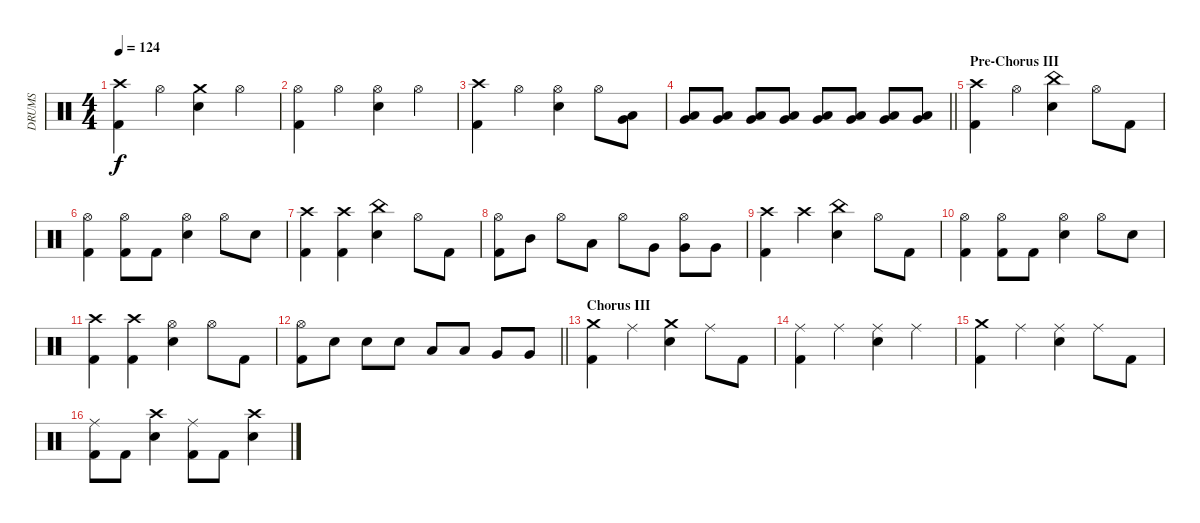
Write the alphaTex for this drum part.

\track ("DRUMS" "DRUMS") {instrument percussion}
\staff {score}
\articulation defaults
\ts (4 4)
\tempo 124
\clef neutral
\ks c
("Crash high (hit)" "Kick (hit) 2").4{dy f} "Hi-Hat (open)".4 ("Crash medium (hit)" "Snare (hit) 2").4 "Hi-Hat (open)".4 |
("Hi-Hat (open)" "Kick (hit) 2").4 "Hi-Hat (open)".4 ("Hi-Hat (open)" "Snare (hit) 2").4 "Hi-Hat (open)".4 |
("Crash high (hit)" "Kick (hit) 2").4 "Hi-Hat (open)".4 ("Hi-Hat (open)" "Snare (hit) 2").4 "Hi-Hat (open)".8 ("Very Low Tom (hit)" "Low Floor Tom (hit)").8 |
\barLineRight lightlight
("Very Low Tom (hit)" "Low Floor Tom (hit)").8 ("Very Low Tom (hit)" "Low Floor Tom (hit)").8 ("Very Low Tom (hit)" "Low Floor Tom (hit)").8 ("Very Low Tom (hit)" "Low Floor Tom (hit)").8 ("Very Low Tom (hit)" "Low Floor Tom (hit)").8 ("Very Low Tom (hit)" "Low Floor Tom (hit)").8 ("Very Low Tom (hit)" "Low Floor Tom (hit)").8 ("Very Low Tom (hit)" "Low Floor Tom (hit)").8 |
\section ("" "Pre-Chorus III")
("Crash high (hit)" "Kick (hit) 2").4 "Hi-Hat (open)".4 ("China (hit)" "Snare (hit) 2").4 "Hi-Hat (open)".8 "Kick (hit) 2".8 |
("Hi-Hat (open)" "Kick (hit) 2").4 ("Hi-Hat (open)" "Kick (hit) 2").8 "Kick (hit) 2".8 ("Hi-Hat (open)" "Snare (hit) 2").4 "Hi-Hat (open)".8 "Snare (hit) 2".8 |
("Crash high (hit)" "Kick (hit) 2").4 ("Crash high (hit)" "Kick (hit) 2").4 ("China (hit)" "Snare (hit) 2").4 "Hi-Hat (open)".8 "Kick (hit) 2".8 |
("Hi-Hat (open)" "Kick (hit) 2").8 "Mid Tom (hit)".8 "Hi-Hat (open)".8 "Low Tom (hit)".8 "Hi-Hat (open)".8 "Very Low Tom (hit)".8 ("Hi-Hat (open)" "Very Low Tom (hit)").8 "Very Low Tom (hit)".8 |
("Crash high (hit)" "Kick (hit) 2").4 "Crash high (hit)".4 ("China (hit)" "Snare (hit) 2").4 "Hi-Hat (open)".8 "Kick (hit) 2".8 |
("Hi-Hat (open)" "Kick (hit) 2").4 ("Hi-Hat (open)" "Kick (hit) 2").8 "Kick (hit) 2".8 ("Hi-Hat (open)" "Snare (hit) 2").4 "Hi-Hat (open)".8 "Snare (hit) 2".8 |
("Crash high (hit)" "Kick (hit) 2").4 ("Crash high (hit)" "Kick (hit) 2").4 ("Hi-Hat (open)" "Snare (hit) 2").4 "Hi-Hat (open)".8 "Kick (hit) 2".8 |
\barLineRight lightlight
("Hi-Hat (open)" "Kick (hit) 2").8 "Snare (hit) 2".8 "Snare (hit) 2".8 "Snare (hit) 2".8 "Low Tom (hit)".8 "Low Tom (hit)".8 "Very Low Tom (hit)".8 "Very Low Tom (hit)".8 |
\section ("" "Chorus III")
("Crash medium (hit)" "Kick (hit) 2").4 "Ride (middle)".4 ("Crash medium (hit)" "Snare (hit) 2").4 "Ride (middle)".8 "Kick (hit) 2".8 |
("Ride (middle)" "Kick (hit) 2").4 "Ride (middle)".4 ("Ride (middle)" "Snare (hit) 2").4 "Ride (middle)".4 |
("Crash medium (hit)" "Kick (hit) 2").4 "Ride (middle)".4 ("Ride (middle)" "Snare (hit) 2").4 "Ride (middle)".8 "Kick (hit) 2".8 |
("Ride (middle)" "Kick (hit) 2").8 "Kick (hit) 2".8 ("Crash high (hit)" "Snare (hit) 2").4 ("Ride (middle)" "Kick (hit) 2").8 "Kick (hit) 2".8 ("Crash high (hit)" "Snare (hit) 2").4
